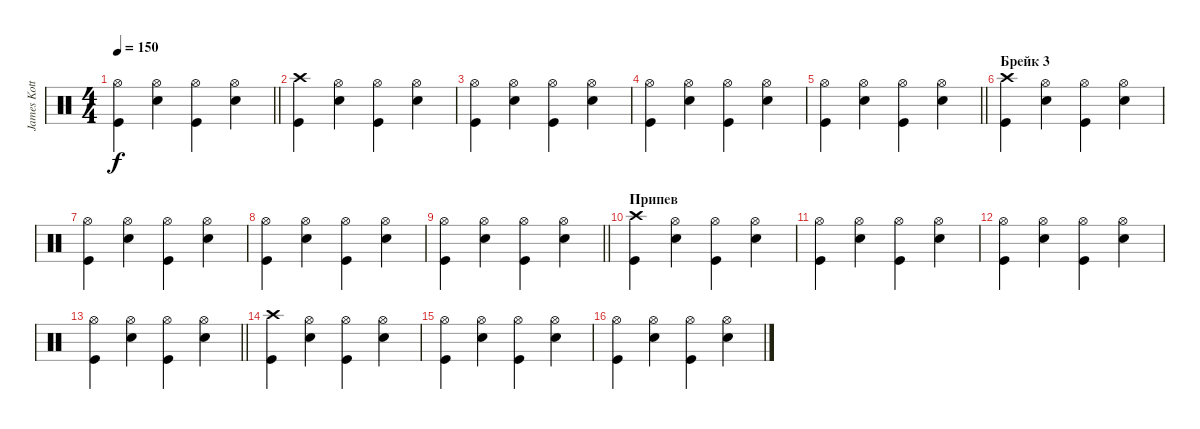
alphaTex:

\track ("James Kottak" "James Kott") {instrument percussion}
\staff {score}
\articulation defaults
\ts (4 4)
\tempo 150
\clef neutral
\barLineRight lightlight
\ks c
("Hi-Hat (open)" "Kick (hit)").4{dy f} ("Hi-Hat (open)" "Snare (hit) 2").4 ("Hi-Hat (open)" "Kick (hit)").4 ("Hi-Hat (open)" "Snare (hit) 2").4 |
("Crash high (hit)" "Kick (hit)").4 ("Hi-Hat (open)" "Snare (hit) 2").4 ("Hi-Hat (open)" "Kick (hit)").4 ("Hi-Hat (open)" "Snare (hit) 2").4 |
("Hi-Hat (open)" "Kick (hit)").4 ("Hi-Hat (open)" "Snare (hit) 2").4 ("Hi-Hat (open)" "Kick (hit)").4 ("Hi-Hat (open)" "Snare (hit) 2").4 |
("Hi-Hat (open)" "Kick (hit)").4 ("Hi-Hat (open)" "Snare (hit) 2").4 ("Hi-Hat (open)" "Kick (hit)").4 ("Hi-Hat (open)" "Snare (hit) 2").4 |
\barLineRight lightlight
("Hi-Hat (open)" "Kick (hit)").4 ("Hi-Hat (open)" "Snare (hit) 2").4 ("Hi-Hat (open)" "Kick (hit)").4 ("Hi-Hat (open)" "Snare (hit) 2").4 |
\section ("" "Брейк 3")
("Crash high (hit)" "Kick (hit)").4 ("Hi-Hat (open)" "Snare (hit) 2").4 ("Hi-Hat (open)" "Kick (hit)").4 ("Hi-Hat (open)" "Snare (hit) 2").4 |
("Hi-Hat (open)" "Kick (hit)").4 ("Hi-Hat (open)" "Snare (hit) 2").4 ("Hi-Hat (open)" "Kick (hit)").4 ("Hi-Hat (open)" "Snare (hit) 2").4 |
("Hi-Hat (open)" "Kick (hit)").4 ("Hi-Hat (open)" "Snare (hit) 2").4 ("Hi-Hat (open)" "Kick (hit)").4 ("Hi-Hat (open)" "Snare (hit) 2").4 |
\barLineRight lightlight
("Hi-Hat (open)" "Kick (hit)").4 ("Hi-Hat (open)" "Snare (hit) 2").4 ("Hi-Hat (open)" "Kick (hit)").4 ("Hi-Hat (open)" "Snare (hit) 2").4 |
\section ("" "Припев")
("Crash high (hit)" "Kick (hit)").4 ("Hi-Hat (open)" "Snare (hit) 2").4 ("Hi-Hat (open)" "Kick (hit)").4 ("Hi-Hat (open)" "Snare (hit) 2").4 |
("Hi-Hat (open)" "Kick (hit)").4 ("Hi-Hat (open)" "Snare (hit) 2").4 ("Hi-Hat (open)" "Kick (hit)").4 ("Hi-Hat (open)" "Snare (hit) 2").4 |
("Hi-Hat (open)" "Kick (hit)").4 ("Hi-Hat (open)" "Snare (hit) 2").4 ("Hi-Hat (open)" "Kick (hit)").4 ("Hi-Hat (open)" "Snare (hit) 2").4 |
\barLineRight lightlight
("Hi-Hat (open)" "Kick (hit)").4 ("Hi-Hat (open)" "Snare (hit) 2").4 ("Hi-Hat (open)" "Kick (hit)").4 ("Hi-Hat (open)" "Snare (hit) 2").4 |
("Crash high (hit)" "Kick (hit)").4 ("Hi-Hat (open)" "Snare (hit) 2").4 ("Hi-Hat (open)" "Kick (hit)").4 ("Hi-Hat (open)" "Snare (hit) 2").4 |
("Hi-Hat (open)" "Kick (hit)").4 ("Hi-Hat (open)" "Snare (hit) 2").4 ("Hi-Hat (open)" "Kick (hit)").4 ("Hi-Hat (open)" "Snare (hit) 2").4 |
("Hi-Hat (open)" "Kick (hit)").4 ("Hi-Hat (open)" "Snare (hit) 2").4 ("Hi-Hat (open)" "Kick (hit)").4 ("Hi-Hat (open)" "Snare (hit) 2").4
